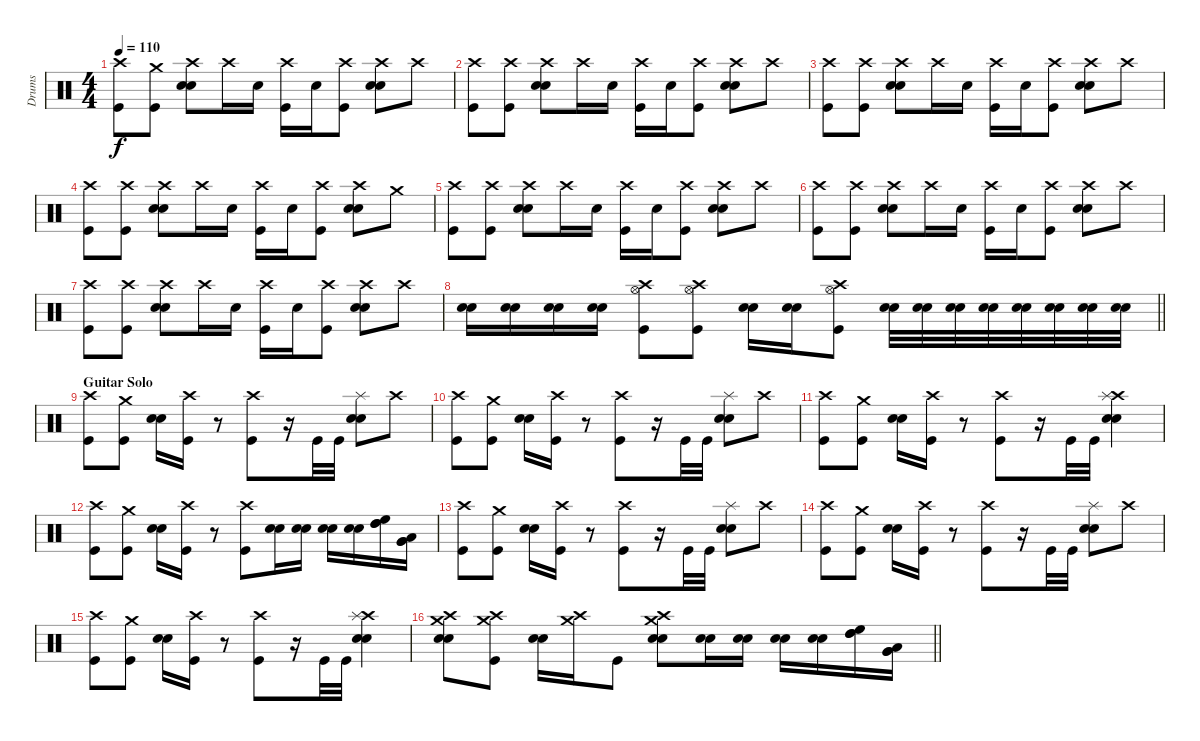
\track ("Drums" "Drums") {instrument percussion}
\staff {score}
\articulation defaults
\ts (4 4)
\tempo 110
\clef neutral
\ks c
("Crash high (hit)" "Kick (hit)").8{dy f} ("Crash medium (hit)" "Kick (hit)").8 ("Crash high (hit)" "Electric Snare (hit)" "Snare (hit) 2").8 "Crash high (hit)".16 "Electric Snare (hit)".16 ("Crash high (hit)" "Kick (hit)").16 "Electric Snare (hit)".16 ("Crash high (hit)" "Kick (hit)").8 ("Crash high (hit)" "Electric Snare (hit)" "Snare (hit) 2").8 "Crash high (hit)".8 |
("Crash high (hit)" "Kick (hit)").8 ("Crash high (hit)" "Kick (hit)").8 ("Crash high (hit)" "Electric Snare (hit)" "Snare (hit) 2").8 "Crash high (hit)".16 "Electric Snare (hit)".16 ("Crash high (hit)" "Kick (hit)").16 "Electric Snare (hit)".16 ("Crash high (hit)" "Kick (hit)").8 ("Crash high (hit)" "Electric Snare (hit)" "Snare (hit) 2").8 "Crash high (hit)".8 |
("Crash high (hit)" "Kick (hit)").8 ("Crash high (hit)" "Kick (hit)").8 ("Crash high (hit)" "Electric Snare (hit)" "Snare (hit) 2").8 "Crash high (hit)".16 "Electric Snare (hit)".16 ("Crash high (hit)" "Kick (hit)").16 "Electric Snare (hit)".16 ("Crash high (hit)" "Kick (hit)").8 ("Crash high (hit)" "Electric Snare (hit)" "Snare (hit) 2").8 "Crash high (hit)".8 |
("Crash high (hit)" "Kick (hit)").8 ("Crash high (hit)" "Kick (hit)").8 ("Crash high (hit)" "Electric Snare (hit)" "Snare (hit) 2").8 "Crash high (hit)".16 "Electric Snare (hit)".16 ("Crash high (hit)" "Kick (hit)").16 "Electric Snare (hit)".16 ("Crash high (hit)" "Kick (hit)").8 ("Crash high (hit)" "Electric Snare (hit)" "Snare (hit) 2").8 "Crash medium (hit)".8 |
("Crash high (hit)" "Kick (hit)").8 ("Crash high (hit)" "Kick (hit)").8 ("Crash high (hit)" "Electric Snare (hit)" "Snare (hit) 2").8 "Crash high (hit)".16 "Electric Snare (hit)".16 ("Crash high (hit)" "Kick (hit)").16 "Electric Snare (hit)".16 ("Crash high (hit)" "Kick (hit)").8 ("Crash high (hit)" "Electric Snare (hit)" "Snare (hit) 2").8 "Crash high (hit)".8 |
("Crash high (hit)" "Kick (hit)").8 ("Crash high (hit)" "Kick (hit)").8 ("Crash high (hit)" "Electric Snare (hit)" "Snare (hit) 2").8 "Crash high (hit)".16 "Electric Snare (hit)".16 ("Crash high (hit)" "Kick (hit)").16 "Electric Snare (hit)".16 ("Crash high (hit)" "Kick (hit)").8 ("Crash high (hit)" "Electric Snare (hit)" "Snare (hit) 2").8 "Crash high (hit)".8 |
("Crash high (hit)" "Kick (hit)").8 ("Crash high (hit)" "Kick (hit)").8 ("Crash high (hit)" "Electric Snare (hit)" "Snare (hit) 2").8 "Crash high (hit)".16 "Electric Snare (hit)".16 ("Crash high (hit)" "Kick (hit)").16 "Electric Snare (hit)".16 ("Crash high (hit)" "Kick (hit)").8 ("Crash high (hit)" "Electric Snare (hit)" "Snare (hit) 2").8 "Crash high (hit)".8 |
\barLineRight lightlight
("Electric Snare (hit)" "Snare (hit) 2").16 ("Electric Snare (hit)" "Snare (hit) 2").16 ("Electric Snare (hit)" "Snare (hit) 2").16 ("Electric Snare (hit)" "Snare (hit) 2").16 ("Crash high (hit)" "Hi-Hat (open)" "Kick (hit)").8 ("Crash high (hit)" "Hi-Hat (open)" "Kick (hit)").8 ("Electric Snare (hit)" "Snare (hit) 2").16 ("Electric Snare (hit)" "Snare (hit) 2").16 ("Crash high (hit)" "Hi-Hat (open)" "Kick (hit)").8 ("Electric Snare (hit)" "Snare (hit) 2").32 ("Electric Snare (hit)" "Snare (hit) 2").32 ("Electric Snare (hit)" "Snare (hit) 2").32 ("Electric Snare (hit)" "Snare (hit) 2").32 ("Electric Snare (hit)" "Snare (hit) 2").32 ("Electric Snare (hit)" "Snare (hit) 2").32 ("Electric Snare (hit)" "Snare (hit) 2").32 ("Electric Snare (hit)" "Snare (hit) 2").32 |
\section ("" "Guitar Solo")
("Crash high (hit)" "Kick (hit)").8 ("Crash medium (hit)" "Kick (hit)").8 ("Electric Snare (hit)" "Snare (hit) 2").16 ("Crash high (hit)" "Kick (hit)").16 r.8 ("Crash high (hit)" "Kick (hit)").8 r.16 "Kick (hit)".32 "Kick (hit)".32 ("Splash (hit)" "Electric Snare (hit)" "Snare (hit) 2").8 "Crash high (hit)".8 |
("Crash high (hit)" "Kick (hit)").8 ("Crash medium (hit)" "Kick (hit)").8 ("Electric Snare (hit)" "Snare (hit) 2").16 ("Crash high (hit)" "Kick (hit)").16 r.8 ("Crash high (hit)" "Kick (hit)").8 r.16 "Kick (hit)".32 "Kick (hit)".32 ("Splash (hit)" "Electric Snare (hit)" "Snare (hit) 2").8 "Crash high (hit)".8 |
("Crash high (hit)" "Kick (hit)").8 ("Crash medium (hit)" "Kick (hit)").8 ("Electric Snare (hit)" "Snare (hit) 2").16 ("Crash high (hit)" "Kick (hit)").16 r.8 ("Crash high (hit)" "Kick (hit)").8 r.16 "Kick (hit)".32 "Kick (hit)".32 ("Crash high (hit)" "Splash (hit)" "Electric Snare (hit)" "Snare (hit) 2").4 |
("Crash high (hit)" "Kick (hit)").8 ("Crash medium (hit)" "Kick (hit)").8 ("Electric Snare (hit)" "Snare (hit) 2").16 ("Crash high (hit)" "Kick (hit)").16 r.8 ("Crash high (hit)" "Kick (hit)").8 ("Electric Snare (hit)" "Snare (hit) 2").16 ("Electric Snare (hit)" "Snare (hit) 2").16 ("Electric Snare (hit)" "Snare (hit) 2").16 ("Electric Snare (hit)" "Snare (hit) 2").16 ("High Floor Tom (hit)" "High Tom (hit)" "High Tom (hit)").16 ("Low Tom (hit)" "Very Low Tom (hit)" "Very Low Tom (hit)").16 |
("Crash high (hit)" "Kick (hit)").8 ("Crash medium (hit)" "Kick (hit)").8 ("Electric Snare (hit)" "Snare (hit) 2").16 ("Crash high (hit)" "Kick (hit)").16 r.8 ("Crash high (hit)" "Kick (hit)").8 r.16 "Kick (hit)".32 "Kick (hit)".32 ("Splash (hit)" "Electric Snare (hit)" "Snare (hit) 2").8 "Crash high (hit)".8 |
("Crash high (hit)" "Kick (hit)").8 ("Crash medium (hit)" "Kick (hit)").8 ("Electric Snare (hit)" "Snare (hit) 2").16 ("Crash high (hit)" "Kick (hit)").16 r.8 ("Crash high (hit)" "Kick (hit)").8 r.16 "Kick (hit)".32 "Kick (hit)".32 ("Splash (hit)" "Electric Snare (hit)" "Snare (hit) 2").8 "Crash high (hit)".8 |
("Crash high (hit)" "Kick (hit)").8 ("Crash medium (hit)" "Kick (hit)").8 ("Electric Snare (hit)" "Snare (hit) 2").16 ("Crash high (hit)" "Kick (hit)").16 r.8 ("Crash high (hit)" "Kick (hit)").8 r.16 "Kick (hit)".32 "Kick (hit)".32 ("Crash high (hit)" "Splash (hit)" "Electric Snare (hit)" "Snare (hit) 2").4 |
\barLineRight lightlight
("Crash medium (hit)" "Crash high (hit)" "Electric Snare (hit)" "Snare (hit) 2").8 ("Crash medium (hit)" "Crash high (hit)" "Kick (hit)").8 ("Electric Snare (hit)" "Snare (hit) 2").16 ("Crash medium (hit)" "Crash high (hit)").16 "Kick (hit)".8 ("Crash medium (hit)" "Crash high (hit)" "Electric Snare (hit)" "Snare (hit) 2").8 ("Electric Snare (hit)" "Snare (hit) 2").16 ("Electric Snare (hit)" "Snare (hit) 2").16 ("Electric Snare (hit)" "Snare (hit) 2").16 ("Electric Snare (hit)" "Snare (hit) 2").16 ("High Floor Tom (hit)" "High Tom (hit)" "High Tom (hit)").16 ("Low Tom (hit)" "Very Low Tom (hit)" "Very Low Tom (hit)").16
